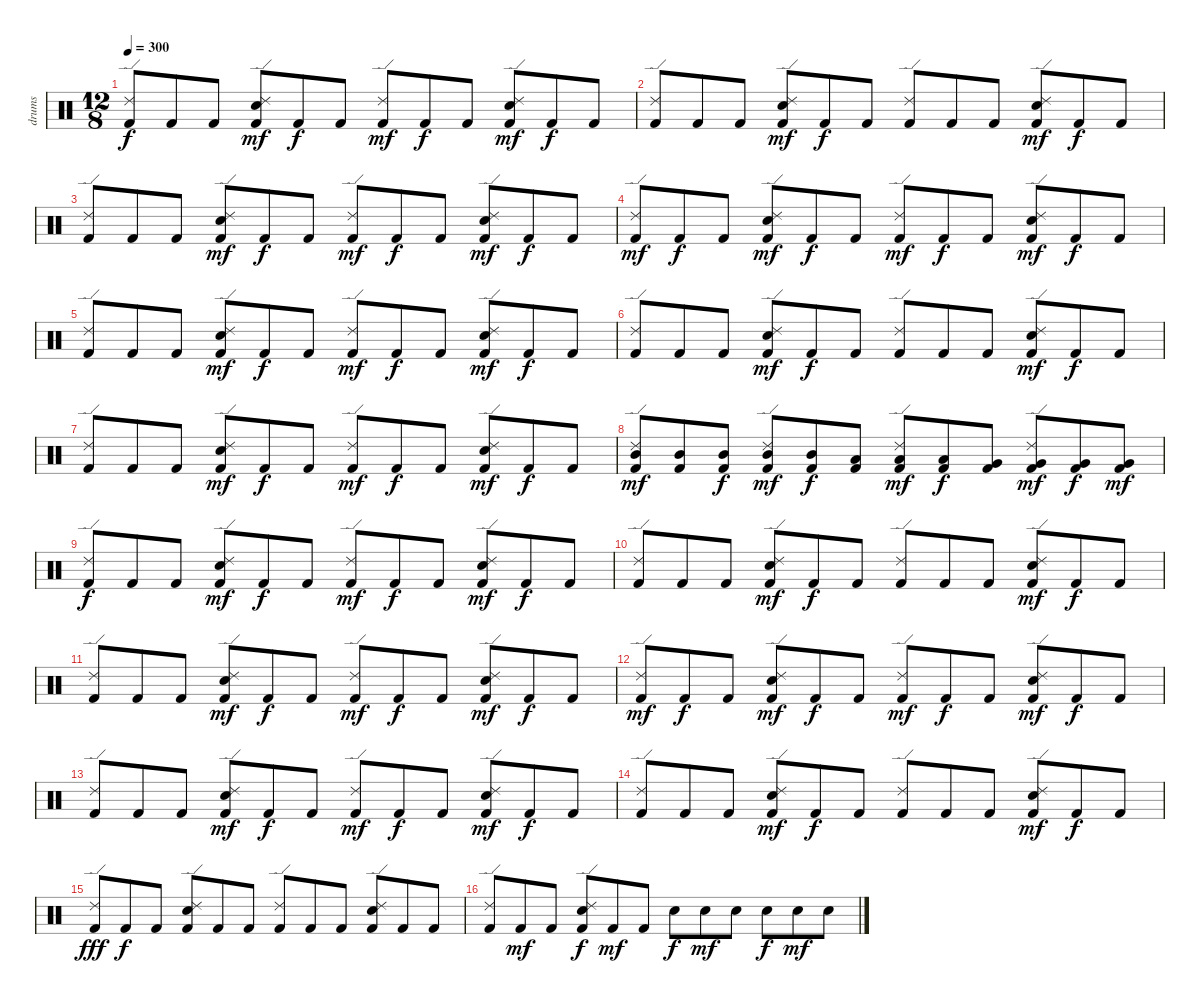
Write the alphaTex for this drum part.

\track ("drums" "drums") {instrument percussion}
\staff {score}
\articulation defaults
\ts (12 8)
\tempo 300
\clef neutral
\ks c
("Ride (edge) 2" "Kick (hit) 2").8{dy f} "Kick (hit) 2".8 "Kick (hit) 2".8 ("Ride (edge) 2" "Snare (hit) 2" "Kick (hit) 2").8{dy mf} "Kick (hit) 2".8{dy f} "Kick (hit) 2".8 ("Ride (edge) 2" "Kick (hit) 2").8{dy mf} "Kick (hit) 2".8{dy f} "Kick (hit) 2".8 ("Ride (edge) 2" "Snare (hit) 2" "Kick (hit) 2").8{dy mf} "Kick (hit) 2".8{dy f} "Kick (hit) 2".8 |
("Ride (edge) 2" "Kick (hit) 2").8 "Kick (hit) 2".8 "Kick (hit) 2".8 ("Ride (edge) 2" "Snare (hit) 2" "Kick (hit) 2").8{dy mf} "Kick (hit) 2".8{dy f} "Kick (hit) 2".8 ("Ride (edge) 2" "Kick (hit) 2").8 "Kick (hit) 2".8 "Kick (hit) 2".8 ("Ride (edge) 2" "Snare (hit) 2" "Kick (hit) 2").8{dy mf} "Kick (hit) 2".8{dy f} "Kick (hit) 2".8 |
("Ride (edge) 2" "Kick (hit) 2").8 "Kick (hit) 2".8 "Kick (hit) 2".8 ("Ride (edge) 2" "Snare (hit) 2" "Kick (hit) 2").8{dy mf} "Kick (hit) 2".8{dy f} "Kick (hit) 2".8 ("Ride (edge) 2" "Kick (hit) 2").8{dy mf} "Kick (hit) 2".8{dy f} "Kick (hit) 2".8 ("Ride (edge) 2" "Snare (hit) 2" "Kick (hit) 2").8{dy mf} "Kick (hit) 2".8{dy f} "Kick (hit) 2".8 |
("Ride (edge) 2" "Kick (hit) 2").8{dy mf} "Kick (hit) 2".8{dy f} "Kick (hit) 2".8 ("Ride (edge) 2" "Snare (hit) 2" "Kick (hit) 2").8{dy mf} "Kick (hit) 2".8{dy f} "Kick (hit) 2".8 ("Ride (edge) 2" "Kick (hit) 2").8{dy mf} "Kick (hit) 2".8{dy f} "Kick (hit) 2".8 ("Ride (edge) 2" "Snare (hit) 2" "Kick (hit) 2").8{dy mf} "Kick (hit) 2".8{dy f} "Kick (hit) 2".8 |
("Ride (edge) 2" "Kick (hit) 2").8 "Kick (hit) 2".8 "Kick (hit) 2".8 ("Ride (edge) 2" "Snare (hit) 2" "Kick (hit) 2").8{dy mf} "Kick (hit) 2".8{dy f} "Kick (hit) 2".8 ("Ride (edge) 2" "Kick (hit) 2").8{dy mf} "Kick (hit) 2".8{dy f} "Kick (hit) 2".8 ("Ride (edge) 2" "Snare (hit) 2" "Kick (hit) 2").8{dy mf} "Kick (hit) 2".8{dy f} "Kick (hit) 2".8 |
("Ride (edge) 2" "Kick (hit) 2").8 "Kick (hit) 2".8 "Kick (hit) 2".8 ("Ride (edge) 2" "Snare (hit) 2" "Kick (hit) 2").8{dy mf} "Kick (hit) 2".8{dy f} "Kick (hit) 2".8 ("Ride (edge) 2" "Kick (hit) 2").8 "Kick (hit) 2".8 "Kick (hit) 2".8 ("Ride (edge) 2" "Snare (hit) 2" "Kick (hit) 2").8{dy mf} "Kick (hit) 2".8{dy f} "Kick (hit) 2".8 |
("Ride (edge) 2" "Kick (hit) 2").8 "Kick (hit) 2".8 "Kick (hit) 2".8 ("Ride (edge) 2" "Snare (hit) 2" "Kick (hit) 2").8{dy mf} "Kick (hit) 2".8{dy f} "Kick (hit) 2".8 ("Ride (edge) 2" "Kick (hit) 2").8{dy mf} "Kick (hit) 2".8{dy f} "Kick (hit) 2".8 ("Ride (edge) 2" "Snare (hit) 2" "Kick (hit) 2").8{dy mf} "Kick (hit) 2".8{dy f} "Kick (hit) 2".8 |
("Ride (edge) 2" "Mid Tom (hit)" "Kick (hit) 2").8{dy mf} ("Mid Tom (hit)" "Kick (hit) 2").8 ("Mid Tom (hit)" "Kick (hit) 2").8{dy f} ("Ride (edge) 2" "Mid Tom (hit)" "Kick (hit) 2").8{dy mf} ("Mid Tom (hit)" "Kick (hit) 2").8{dy f} ("Low Tom (hit)" "Kick (hit) 2").8 ("Ride (edge) 2" "Low Tom (hit)" "Kick (hit) 2").8{dy mf} ("Low Tom (hit)" "Kick (hit) 2").8{dy f} ("Very Low Tom (hit)" "Kick (hit) 2").8 ("Ride (edge) 2" "Very Low Tom (hit)" "Kick (hit) 2").8{dy mf} ("Very Low Tom (hit)" "Kick (hit) 2").8{dy f} ("Very Low Tom (hit)" "Kick (hit) 2").8{dy mf} |
("Ride (edge) 2" "Kick (hit) 2").8{dy f} "Kick (hit) 2".8 "Kick (hit) 2".8 ("Ride (edge) 2" "Snare (hit) 2" "Kick (hit) 2").8{dy mf} "Kick (hit) 2".8{dy f} "Kick (hit) 2".8 ("Ride (edge) 2" "Kick (hit) 2").8{dy mf} "Kick (hit) 2".8{dy f} "Kick (hit) 2".8 ("Ride (edge) 2" "Snare (hit) 2" "Kick (hit) 2").8{dy mf} "Kick (hit) 2".8{dy f} "Kick (hit) 2".8 |
("Ride (edge) 2" "Kick (hit) 2").8 "Kick (hit) 2".8 "Kick (hit) 2".8 ("Ride (edge) 2" "Snare (hit) 2" "Kick (hit) 2").8{dy mf} "Kick (hit) 2".8{dy f} "Kick (hit) 2".8 ("Ride (edge) 2" "Kick (hit) 2").8 "Kick (hit) 2".8 "Kick (hit) 2".8 ("Ride (edge) 2" "Snare (hit) 2" "Kick (hit) 2").8{dy mf} "Kick (hit) 2".8{dy f} "Kick (hit) 2".8 |
("Ride (edge) 2" "Kick (hit) 2").8 "Kick (hit) 2".8 "Kick (hit) 2".8 ("Ride (edge) 2" "Snare (hit) 2" "Kick (hit) 2").8{dy mf} "Kick (hit) 2".8{dy f} "Kick (hit) 2".8 ("Ride (edge) 2" "Kick (hit) 2").8{dy mf} "Kick (hit) 2".8{dy f} "Kick (hit) 2".8 ("Ride (edge) 2" "Snare (hit) 2" "Kick (hit) 2").8{dy mf} "Kick (hit) 2".8{dy f} "Kick (hit) 2".8 |
("Ride (edge) 2" "Kick (hit) 2").8{dy mf} "Kick (hit) 2".8{dy f} "Kick (hit) 2".8 ("Ride (edge) 2" "Snare (hit) 2" "Kick (hit) 2").8{dy mf} "Kick (hit) 2".8{dy f} "Kick (hit) 2".8 ("Ride (edge) 2" "Kick (hit) 2").8{dy mf} "Kick (hit) 2".8{dy f} "Kick (hit) 2".8 ("Ride (edge) 2" "Snare (hit) 2" "Kick (hit) 2").8{dy mf} "Kick (hit) 2".8{dy f} "Kick (hit) 2".8 |
("Ride (edge) 2" "Kick (hit) 2").8 "Kick (hit) 2".8 "Kick (hit) 2".8 ("Ride (edge) 2" "Snare (hit) 2" "Kick (hit) 2").8{dy mf} "Kick (hit) 2".8{dy f} "Kick (hit) 2".8 ("Ride (edge) 2" "Kick (hit) 2").8{dy mf} "Kick (hit) 2".8{dy f} "Kick (hit) 2".8 ("Ride (edge) 2" "Snare (hit) 2" "Kick (hit) 2").8{dy mf} "Kick (hit) 2".8{dy f} "Kick (hit) 2".8 |
("Ride (edge) 2" "Kick (hit) 2").8 "Kick (hit) 2".8 "Kick (hit) 2".8 ("Ride (edge) 2" "Snare (hit) 2" "Kick (hit) 2").8{dy mf} "Kick (hit) 2".8{dy f} "Kick (hit) 2".8 ("Ride (edge) 2" "Kick (hit) 2").8 "Kick (hit) 2".8 "Kick (hit) 2".8 ("Ride (edge) 2" "Snare (hit) 2" "Kick (hit) 2").8{dy mf} "Kick (hit) 2".8{dy f} "Kick (hit) 2".8 |
("Ride (edge) 2" "Kick (hit) 2").8{dy fff} "Kick (hit) 2".8{dy f} "Kick (hit) 2".8 ("Ride (edge) 2" "Snare (hit) 2" "Kick (hit) 2").8 "Kick (hit) 2".8 "Kick (hit) 2".8 ("Ride (edge) 2" "Kick (hit) 2").8 "Kick (hit) 2".8 "Kick (hit) 2".8 ("Ride (edge) 2" "Snare (hit) 2" "Kick (hit) 2").8 "Kick (hit) 2".8 "Kick (hit) 2".8 |
("Ride (edge) 2" "Kick (hit) 2").8 "Kick (hit) 2".8{dy mf} "Kick (hit) 2".8 ("Ride (edge) 2" "Snare (hit) 2" "Kick (hit) 2").8{dy f} "Kick (hit) 2".8{dy mf} "Kick (hit) 2".8 "Snare (hit) 2".8{dy f} "Snare (hit) 2".8{dy mf} "Snare (hit) 2".8 "Snare (hit) 2".8{dy f} "Snare (hit) 2".8{dy mf} "Snare (hit) 2".8
